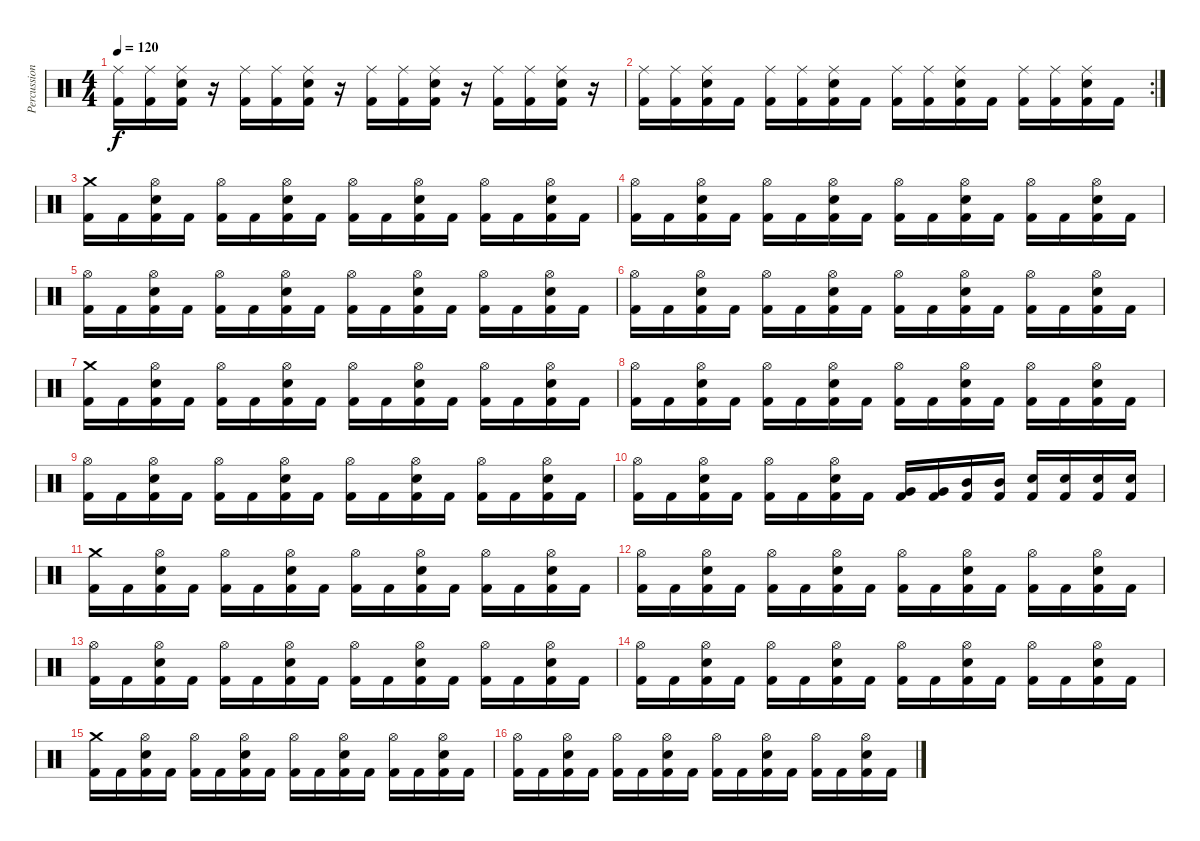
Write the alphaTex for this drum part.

\track ("Percussions" "Percussion") {instrument percussion}
\staff {score}
\articulation defaults
\ts (4 4)
\tempo 120
\clef neutral
\ks c
("Kick (hit) 2" "Ride (middle)").16{dy f} ("Kick (hit) 2" "Ride (middle)").16 ("Kick (hit) 2" "Electric Snare (hit)" "Ride (middle)").16 r.16 ("Kick (hit) 2" "Ride (middle)").16 ("Kick (hit) 2" "Ride (middle)").16 ("Kick (hit) 2" "Electric Snare (hit)" "Ride (middle)").16 r.16 ("Kick (hit) 2" "Ride (middle)").16 ("Kick (hit) 2" "Ride (middle)").16 ("Kick (hit) 2" "Electric Snare (hit)" "Ride (middle)").16 r.16 ("Kick (hit) 2" "Ride (middle)").16 ("Kick (hit) 2" "Ride (middle)").16 ("Kick (hit) 2" "Electric Snare (hit)" "Ride (middle)").16 r.16 |
\rc 2
("Kick (hit) 2" "Ride (middle)").16 ("Kick (hit) 2" "Ride (middle)").16 ("Kick (hit) 2" "Electric Snare (hit)" "Ride (middle)").16 "Kick (hit) 2".16 ("Kick (hit) 2" "Ride (middle)").16 ("Kick (hit) 2" "Ride (middle)").16 ("Kick (hit) 2" "Electric Snare (hit)" "Ride (middle)").16 "Kick (hit) 2".16 ("Kick (hit) 2" "Ride (middle)").16 ("Kick (hit) 2" "Ride (middle)").16 ("Kick (hit) 2" "Electric Snare (hit)" "Ride (middle)").16 "Kick (hit) 2".16 ("Kick (hit) 2" "Ride (middle)").16 ("Kick (hit) 2" "Ride (middle)").16 ("Kick (hit) 2" "Electric Snare (hit)" "Ride (middle)").16 "Kick (hit) 2".16 |
("Kick (hit) 2" "Crash medium (hit)").16 "Kick (hit) 2".16 ("Kick (hit) 2" "Electric Snare (hit)" "Hi-Hat (open)").16 "Kick (hit) 2".16 ("Kick (hit) 2" "Hi-Hat (open)").16 "Kick (hit) 2".16 ("Kick (hit) 2" "Electric Snare (hit)" "Hi-Hat (open)").16 "Kick (hit) 2".16 ("Kick (hit) 2" "Hi-Hat (open)").16 "Kick (hit) 2".16 ("Kick (hit) 2" "Electric Snare (hit)" "Hi-Hat (open)").16 "Kick (hit) 2".16 ("Kick (hit) 2" "Hi-Hat (open)").16 "Kick (hit) 2".16 ("Kick (hit) 2" "Electric Snare (hit)" "Hi-Hat (open)").16 "Kick (hit) 2".16 |
("Kick (hit) 2" "Hi-Hat (open)").16 "Kick (hit) 2".16 ("Kick (hit) 2" "Electric Snare (hit)" "Hi-Hat (open)").16 "Kick (hit) 2".16 ("Kick (hit) 2" "Hi-Hat (open)").16 "Kick (hit) 2".16 ("Kick (hit) 2" "Electric Snare (hit)" "Hi-Hat (open)").16 "Kick (hit) 2".16 ("Kick (hit) 2" "Hi-Hat (open)").16 "Kick (hit) 2".16 ("Kick (hit) 2" "Electric Snare (hit)" "Hi-Hat (open)").16 "Kick (hit) 2".16 ("Kick (hit) 2" "Hi-Hat (open)").16 "Kick (hit) 2".16 ("Kick (hit) 2" "Electric Snare (hit)" "Hi-Hat (open)").16 "Kick (hit) 2".16 |
("Kick (hit) 2" "Hi-Hat (open)").16 "Kick (hit) 2".16 ("Kick (hit) 2" "Electric Snare (hit)" "Hi-Hat (open)").16 "Kick (hit) 2".16 ("Kick (hit) 2" "Hi-Hat (open)").16 "Kick (hit) 2".16 ("Kick (hit) 2" "Electric Snare (hit)" "Hi-Hat (open)").16 "Kick (hit) 2".16 ("Kick (hit) 2" "Hi-Hat (open)").16 "Kick (hit) 2".16 ("Kick (hit) 2" "Electric Snare (hit)" "Hi-Hat (open)").16 "Kick (hit) 2".16 ("Kick (hit) 2" "Hi-Hat (open)").16 "Kick (hit) 2".16 ("Kick (hit) 2" "Electric Snare (hit)" "Hi-Hat (open)").16 "Kick (hit) 2".16 |
("Kick (hit) 2" "Hi-Hat (open)").16 "Kick (hit) 2".16 ("Kick (hit) 2" "Electric Snare (hit)" "Hi-Hat (open)").16 "Kick (hit) 2".16 ("Kick (hit) 2" "Hi-Hat (open)").16 "Kick (hit) 2".16 ("Kick (hit) 2" "Electric Snare (hit)" "Hi-Hat (open)").16 "Kick (hit) 2".16 ("Kick (hit) 2" "Hi-Hat (open)").16 "Kick (hit) 2".16 ("Kick (hit) 2" "Electric Snare (hit)" "Hi-Hat (open)").16 "Kick (hit) 2".16 ("Kick (hit) 2" "Hi-Hat (open)").16 "Kick (hit) 2".16 ("Kick (hit) 2" "Electric Snare (hit)" "Hi-Hat (open)").16 "Kick (hit) 2".16 |
("Kick (hit) 2" "Crash medium (hit)").16 "Kick (hit) 2".16 ("Kick (hit) 2" "Electric Snare (hit)" "Hi-Hat (open)").16 "Kick (hit) 2".16 ("Kick (hit) 2" "Hi-Hat (open)").16 "Kick (hit) 2".16 ("Kick (hit) 2" "Electric Snare (hit)" "Hi-Hat (open)").16 "Kick (hit) 2".16 ("Kick (hit) 2" "Hi-Hat (open)").16 "Kick (hit) 2".16 ("Kick (hit) 2" "Electric Snare (hit)" "Hi-Hat (open)").16 "Kick (hit) 2".16 ("Kick (hit) 2" "Hi-Hat (open)").16 "Kick (hit) 2".16 ("Kick (hit) 2" "Electric Snare (hit)" "Hi-Hat (open)").16 "Kick (hit) 2".16 |
("Kick (hit) 2" "Hi-Hat (open)").16 "Kick (hit) 2".16 ("Kick (hit) 2" "Electric Snare (hit)" "Hi-Hat (open)").16 "Kick (hit) 2".16 ("Kick (hit) 2" "Hi-Hat (open)").16 "Kick (hit) 2".16 ("Kick (hit) 2" "Electric Snare (hit)" "Hi-Hat (open)").16 "Kick (hit) 2".16 ("Kick (hit) 2" "Hi-Hat (open)").16 "Kick (hit) 2".16 ("Kick (hit) 2" "Electric Snare (hit)" "Hi-Hat (open)").16 "Kick (hit) 2".16 ("Kick (hit) 2" "Hi-Hat (open)").16 "Kick (hit) 2".16 ("Kick (hit) 2" "Electric Snare (hit)" "Hi-Hat (open)").16 "Kick (hit) 2".16 |
("Kick (hit) 2" "Hi-Hat (open)").16 "Kick (hit) 2".16 ("Kick (hit) 2" "Electric Snare (hit)" "Hi-Hat (open)").16 "Kick (hit) 2".16 ("Kick (hit) 2" "Hi-Hat (open)").16 "Kick (hit) 2".16 ("Kick (hit) 2" "Electric Snare (hit)" "Hi-Hat (open)").16 "Kick (hit) 2".16 ("Kick (hit) 2" "Hi-Hat (open)").16 "Kick (hit) 2".16 ("Kick (hit) 2" "Electric Snare (hit)" "Hi-Hat (open)").16 "Kick (hit) 2".16 ("Kick (hit) 2" "Hi-Hat (open)").16 "Kick (hit) 2".16 ("Kick (hit) 2" "Electric Snare (hit)" "Hi-Hat (open)").16 "Kick (hit) 2".16 |
("Kick (hit) 2" "Hi-Hat (open)").16 "Kick (hit) 2".16 ("Kick (hit) 2" "Electric Snare (hit)" "Hi-Hat (open)").16 "Kick (hit) 2".16 ("Kick (hit) 2" "Hi-Hat (open)").16 "Kick (hit) 2".16 ("Kick (hit) 2" "Electric Snare (hit)" "Hi-Hat (open)").16 "Kick (hit) 2".16 ("Kick (hit) 2" "Very Low Tom (hit)").16 ("Kick (hit) 2" "Very Low Tom (hit)").16 ("Kick (hit) 2" "Mid Tom (hit)").16 ("Kick (hit) 2" "Mid Tom (hit)").16 ("Kick (hit) 2" "Electric Snare (hit)").16 ("Kick (hit) 2" "Electric Snare (hit)").16 ("Kick (hit) 2" "Snare (hit) 2").16 ("Kick (hit) 2" "Snare (hit) 2").16 |
("Kick (hit) 2" "Crash medium (hit)").16 "Kick (hit) 2".16 ("Kick (hit) 2" "Electric Snare (hit)" "Hi-Hat (open)").16 "Kick (hit) 2".16 ("Kick (hit) 2" "Hi-Hat (open)").16 "Kick (hit) 2".16 ("Kick (hit) 2" "Electric Snare (hit)" "Hi-Hat (open)").16 "Kick (hit) 2".16 ("Kick (hit) 2" "Hi-Hat (open)").16 "Kick (hit) 2".16 ("Kick (hit) 2" "Electric Snare (hit)" "Hi-Hat (open)").16 "Kick (hit) 2".16 ("Kick (hit) 2" "Hi-Hat (open)").16 "Kick (hit) 2".16 ("Kick (hit) 2" "Electric Snare (hit)" "Hi-Hat (open)").16 "Kick (hit) 2".16 |
("Kick (hit) 2" "Hi-Hat (open)").16 "Kick (hit) 2".16 ("Kick (hit) 2" "Electric Snare (hit)" "Hi-Hat (open)").16 "Kick (hit) 2".16 ("Kick (hit) 2" "Hi-Hat (open)").16 "Kick (hit) 2".16 ("Kick (hit) 2" "Electric Snare (hit)" "Hi-Hat (open)").16 "Kick (hit) 2".16 ("Kick (hit) 2" "Hi-Hat (open)").16 "Kick (hit) 2".16 ("Kick (hit) 2" "Electric Snare (hit)" "Hi-Hat (open)").16 "Kick (hit) 2".16 ("Kick (hit) 2" "Hi-Hat (open)").16 "Kick (hit) 2".16 ("Kick (hit) 2" "Electric Snare (hit)" "Hi-Hat (open)").16 "Kick (hit) 2".16 |
("Kick (hit) 2" "Hi-Hat (open)").16 "Kick (hit) 2".16 ("Kick (hit) 2" "Electric Snare (hit)" "Hi-Hat (open)").16 "Kick (hit) 2".16 ("Kick (hit) 2" "Hi-Hat (open)").16 "Kick (hit) 2".16 ("Kick (hit) 2" "Electric Snare (hit)" "Hi-Hat (open)").16 "Kick (hit) 2".16 ("Kick (hit) 2" "Hi-Hat (open)").16 "Kick (hit) 2".16 ("Kick (hit) 2" "Electric Snare (hit)" "Hi-Hat (open)").16 "Kick (hit) 2".16 ("Kick (hit) 2" "Hi-Hat (open)").16 "Kick (hit) 2".16 ("Kick (hit) 2" "Electric Snare (hit)" "Hi-Hat (open)").16 "Kick (hit) 2".16 |
("Kick (hit) 2" "Hi-Hat (open)").16 "Kick (hit) 2".16 ("Kick (hit) 2" "Electric Snare (hit)" "Hi-Hat (open)").16 "Kick (hit) 2".16 ("Kick (hit) 2" "Hi-Hat (open)").16 "Kick (hit) 2".16 ("Kick (hit) 2" "Electric Snare (hit)" "Hi-Hat (open)").16 "Kick (hit) 2".16 ("Kick (hit) 2" "Hi-Hat (open)").16 "Kick (hit) 2".16 ("Kick (hit) 2" "Electric Snare (hit)" "Hi-Hat (open)").16 "Kick (hit) 2".16 ("Kick (hit) 2" "Hi-Hat (open)").16 "Kick (hit) 2".16 ("Kick (hit) 2" "Electric Snare (hit)" "Hi-Hat (open)").16 "Kick (hit) 2".16 |
("Kick (hit) 2" "Crash medium (hit)").16 "Kick (hit) 2".16 ("Kick (hit) 2" "Electric Snare (hit)" "Hi-Hat (open)").16 "Kick (hit) 2".16 ("Kick (hit) 2" "Hi-Hat (open)").16 "Kick (hit) 2".16 ("Kick (hit) 2" "Electric Snare (hit)" "Hi-Hat (open)").16 "Kick (hit) 2".16 ("Kick (hit) 2" "Hi-Hat (open)").16 "Kick (hit) 2".16 ("Kick (hit) 2" "Electric Snare (hit)" "Hi-Hat (open)").16 "Kick (hit) 2".16 ("Kick (hit) 2" "Hi-Hat (open)").16 "Kick (hit) 2".16 ("Kick (hit) 2" "Electric Snare (hit)" "Hi-Hat (open)").16 "Kick (hit) 2".16 |
("Kick (hit) 2" "Hi-Hat (open)").16 "Kick (hit) 2".16 ("Kick (hit) 2" "Electric Snare (hit)" "Hi-Hat (open)").16 "Kick (hit) 2".16 ("Kick (hit) 2" "Hi-Hat (open)").16 "Kick (hit) 2".16 ("Kick (hit) 2" "Electric Snare (hit)" "Hi-Hat (open)").16 "Kick (hit) 2".16 ("Kick (hit) 2" "Hi-Hat (open)").16 "Kick (hit) 2".16 ("Kick (hit) 2" "Electric Snare (hit)" "Hi-Hat (open)").16 "Kick (hit) 2".16 ("Kick (hit) 2" "Hi-Hat (open)").16 "Kick (hit) 2".16 ("Kick (hit) 2" "Electric Snare (hit)" "Hi-Hat (open)").16 "Kick (hit) 2".16
